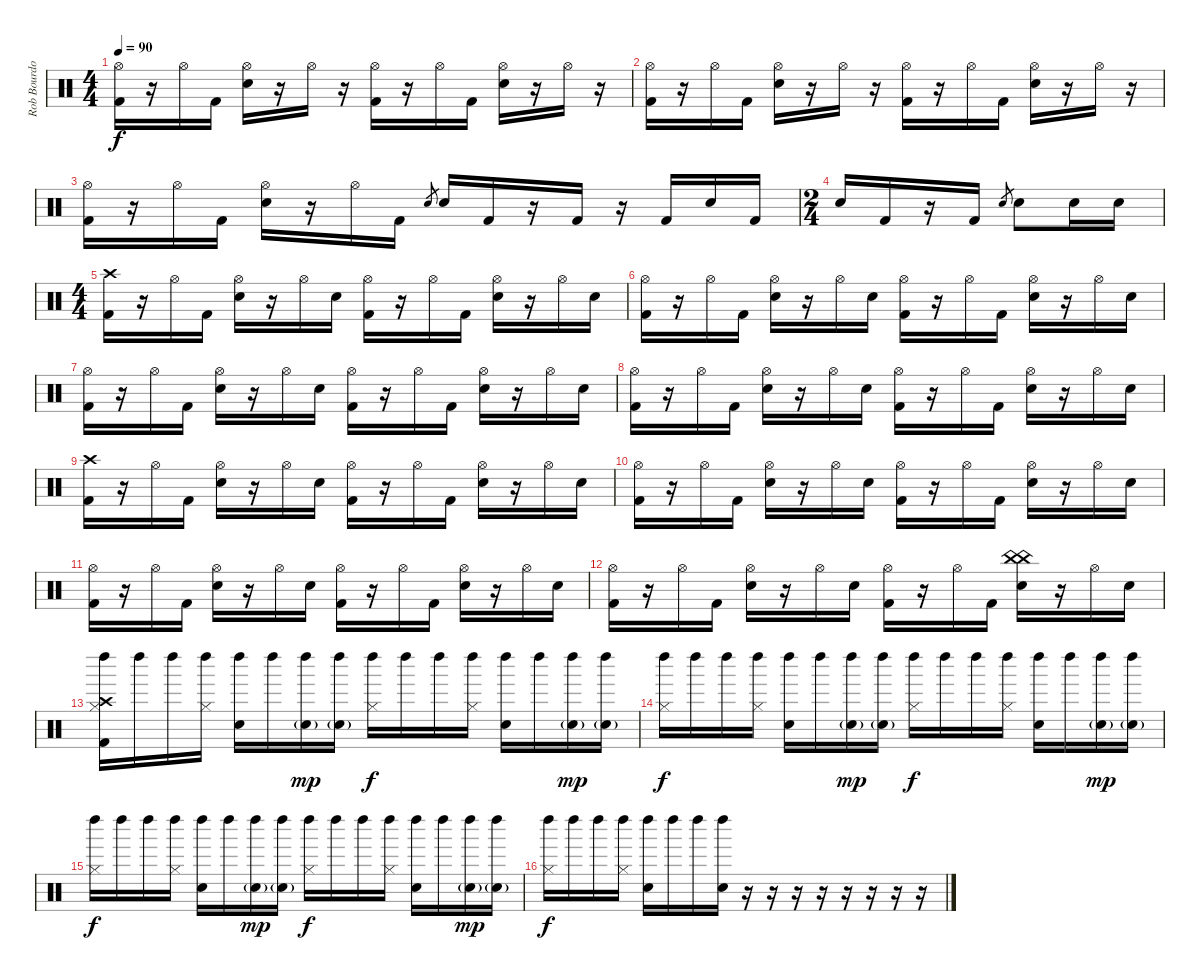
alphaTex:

\track ("Rob Bourdon - Drums" "Rob Bourdo") {instrument percussion}
\staff {score}
\articulation defaults
\ts (4 4)
\tempo 90
\clef neutral
\ks c
("Hi-Hat (open)" "Kick (hit) 2").16{dy f} r.16 "Hi-Hat (open)".16 "Kick (hit) 2".16 ("Hi-Hat (open)" "Electric Snare (hit)").16 r.16 "Hi-Hat (open)".16 r.16 ("Hi-Hat (open)" "Kick (hit) 2").16 r.16 "Hi-Hat (open)".16 "Kick (hit) 2".16 ("Hi-Hat (open)" "Electric Snare (hit)").16 r.16 "Hi-Hat (open)".16 r.16 |
("Hi-Hat (open)" "Kick (hit) 2").16 r.16 "Hi-Hat (open)".16 "Kick (hit) 2".16 ("Hi-Hat (open)" "Electric Snare (hit)").16 r.16 "Hi-Hat (open)".16 r.16 ("Hi-Hat (open)" "Kick (hit) 2").16 r.16 "Hi-Hat (open)".16 "Kick (hit) 2".16 ("Hi-Hat (open)" "Electric Snare (hit)").16 r.16 "Hi-Hat (open)".16 r.16 |
("Hi-Hat (open)" "Kick (hit) 2").16 r.16 "Hi-Hat (open)".16 "Kick (hit) 2".16 ("Hi-Hat (open)" "Electric Snare (hit)").16 r.16 "Hi-Hat (open)".16 "Kick (hit) 2".16 "Electric Snare (hit)".8{gr} "Electric Snare (hit)".16 "Kick (hit) 2".16 r.16 "Kick (hit) 2".16 r.16 "Kick (hit) 2".16 "Electric Snare (hit)".16 "Kick (hit) 2".16 |
\ts (2 4)
"Electric Snare (hit)".16 "Kick (hit) 2".16 r.16 "Kick (hit) 2".16 "Electric Snare (hit)".8{gr} "Electric Snare (hit)".8 "Electric Snare (hit)".16 "Electric Snare (hit)".16 |
\ts (4 4)
("Crash high (hit)" "Kick (hit) 2").16 r.16 "Hi-Hat (open)".16 "Kick (hit) 2".16 ("Hi-Hat (open)" "Electric Snare (hit)").16 r.16 "Hi-Hat (open)".16 "Electric Snare (hit)".16 ("Hi-Hat (open)" "Kick (hit) 2").16 r.16 "Hi-Hat (open)".16 "Kick (hit) 2".16 ("Hi-Hat (open)" "Electric Snare (hit)").16 r.16 "Hi-Hat (open)".16 "Electric Snare (hit)".16 |
("Hi-Hat (open)" "Kick (hit) 2").16 r.16 "Hi-Hat (open)".16 "Kick (hit) 2".16 ("Hi-Hat (open)" "Electric Snare (hit)").16 r.16 "Hi-Hat (open)".16 "Electric Snare (hit)".16 ("Hi-Hat (open)" "Kick (hit) 2").16 r.16 "Hi-Hat (open)".16 "Kick (hit) 2".16 ("Hi-Hat (open)" "Electric Snare (hit)").16 r.16 "Hi-Hat (open)".16 "Electric Snare (hit)".16 |
("Hi-Hat (open)" "Kick (hit) 2").16 r.16 "Hi-Hat (open)".16 "Kick (hit) 2".16 ("Hi-Hat (open)" "Electric Snare (hit)").16 r.16 "Hi-Hat (open)".16 "Electric Snare (hit)".16 ("Hi-Hat (open)" "Kick (hit) 2").16 r.16 "Hi-Hat (open)".16 "Kick (hit) 2".16 ("Hi-Hat (open)" "Electric Snare (hit)").16 r.16 "Hi-Hat (open)".16 "Electric Snare (hit)".16 |
("Hi-Hat (open)" "Kick (hit) 2").16 r.16 "Hi-Hat (open)".16 "Kick (hit) 2".16 ("Hi-Hat (open)" "Electric Snare (hit)").16 r.16 "Hi-Hat (open)".16 "Electric Snare (hit)".16 ("Hi-Hat (open)" "Kick (hit) 2").16 r.16 "Hi-Hat (open)".16 "Kick (hit) 2".16 ("Hi-Hat (open)" "Electric Snare (hit)").16 r.16 "Hi-Hat (open)".16 "Electric Snare (hit)".16 |
("Crash high (hit)" "Kick (hit) 2").16 r.16 "Hi-Hat (open)".16 "Kick (hit) 2".16 ("Hi-Hat (open)" "Electric Snare (hit)").16 r.16 "Hi-Hat (open)".16 "Electric Snare (hit)".16 ("Hi-Hat (open)" "Kick (hit) 2").16 r.16 "Hi-Hat (open)".16 "Kick (hit) 2".16 ("Hi-Hat (open)" "Electric Snare (hit)").16 r.16 "Hi-Hat (open)".16 "Electric Snare (hit)".16 |
("Hi-Hat (open)" "Kick (hit) 2").16 r.16 "Hi-Hat (open)".16 "Kick (hit) 2".16 ("Hi-Hat (open)" "Electric Snare (hit)").16 r.16 "Hi-Hat (open)".16 "Electric Snare (hit)".16 ("Hi-Hat (open)" "Kick (hit) 2").16 r.16 "Hi-Hat (open)".16 "Kick (hit) 2".16 ("Hi-Hat (open)" "Electric Snare (hit)").16 r.16 "Hi-Hat (open)".16 "Electric Snare (hit)".16 |
("Hi-Hat (open)" "Kick (hit) 2").16 r.16 "Hi-Hat (open)".16 "Kick (hit) 2".16 ("Hi-Hat (open)" "Electric Snare (hit)").16 r.16 "Hi-Hat (open)".16 "Electric Snare (hit)".16 ("Hi-Hat (open)" "Kick (hit) 2").16 r.16 "Hi-Hat (open)".16 "Kick (hit) 2".16 ("Hi-Hat (open)" "Electric Snare (hit)").16 r.16 "Hi-Hat (open)".16 "Electric Snare (hit)".16 |
("Hi-Hat (open)" "Kick (hit) 2").16 r.16 "Hi-Hat (open)".16 "Kick (hit) 2".16 ("Hi-Hat (open)" "Electric Snare (hit)").16 r.16 "Hi-Hat (open)".16 "Electric Snare (hit)".16 ("Hi-Hat (open)" "Kick (hit) 2").16 r.16 "Hi-Hat (open)".16 "Kick (hit) 2".16 ("China (hit)" "China (hit)" "Electric Snare (hit)").16 r.16 "Hi-Hat (open)".16 "Electric Snare (hit)".16 |
("Crash high (hit)" "Left Maraca (hit)" "Kick (hit) 2" "Hi-Hat (closed)").16 "Left Maraca (hit)".16 "Left Maraca (hit)".16 ("Left Maraca (hit)" "Hi-Hat (closed)").16 ("Left Maraca (hit)" "Hand Clap (hit)").16 "Left Maraca (hit)".16 ("Left Maraca (hit)" "Hand Clap (hit)"{g}).16{dy mp} ("Left Maraca (hit)" "Hand Clap (hit)"{g}).16 ("Left Maraca (hit)" "Hi-Hat (closed)").16{dy f} "Left Maraca (hit)".16 "Left Maraca (hit)".16 ("Left Maraca (hit)" "Hi-Hat (closed)").16 ("Left Maraca (hit)" "Hand Clap (hit)").16 "Left Maraca (hit)".16 ("Left Maraca (hit)" "Hand Clap (hit)"{g}).16{dy mp} ("Left Maraca (hit)" "Hand Clap (hit)"{g}).16 |
("Left Maraca (hit)" "Hi-Hat (closed)").16{dy f} "Left Maraca (hit)".16 "Left Maraca (hit)".16 ("Left Maraca (hit)" "Hi-Hat (closed)").16 ("Left Maraca (hit)" "Hand Clap (hit)").16 "Left Maraca (hit)".16 ("Left Maraca (hit)" "Hand Clap (hit)"{g}).16{dy mp} ("Left Maraca (hit)" "Hand Clap (hit)"{g}).16 ("Left Maraca (hit)" "Hi-Hat (closed)").16{dy f} "Left Maraca (hit)".16 "Left Maraca (hit)".16 ("Left Maraca (hit)" "Hi-Hat (closed)").16 ("Left Maraca (hit)" "Hand Clap (hit)").16 "Left Maraca (hit)".16 ("Left Maraca (hit)" "Hand Clap (hit)"{g}).16{dy mp} ("Left Maraca (hit)" "Hand Clap (hit)"{g}).16 |
("Left Maraca (hit)" "Hi-Hat (closed)").16{dy f} "Left Maraca (hit)".16 "Left Maraca (hit)".16 ("Left Maraca (hit)" "Hi-Hat (closed)").16 ("Left Maraca (hit)" "Hand Clap (hit)").16 "Left Maraca (hit)".16 ("Left Maraca (hit)" "Hand Clap (hit)"{g}).16{dy mp} ("Left Maraca (hit)" "Hand Clap (hit)"{g}).16 ("Left Maraca (hit)" "Hi-Hat (closed)").16{dy f} "Left Maraca (hit)".16 "Left Maraca (hit)".16 ("Left Maraca (hit)" "Hi-Hat (closed)").16 ("Left Maraca (hit)" "Hand Clap (hit)").16 "Left Maraca (hit)".16 ("Left Maraca (hit)" "Hand Clap (hit)"{g}).16{dy mp} ("Left Maraca (hit)" "Hand Clap (hit)"{g}).16 |
("Left Maraca (hit)" "Hi-Hat (closed)").16{dy f} "Left Maraca (hit)".16 "Left Maraca (hit)".16 ("Left Maraca (hit)" "Hi-Hat (closed)").16 ("Left Maraca (hit)" "Hand Clap (hit)").16 "Left Maraca (hit)".16 "Left Maraca (hit)".16 ("Left Maraca (hit)" "Hand Clap (hit)").16 r.16 r.16 r.16 r.16 r.16 r.16 r.16 r.16
